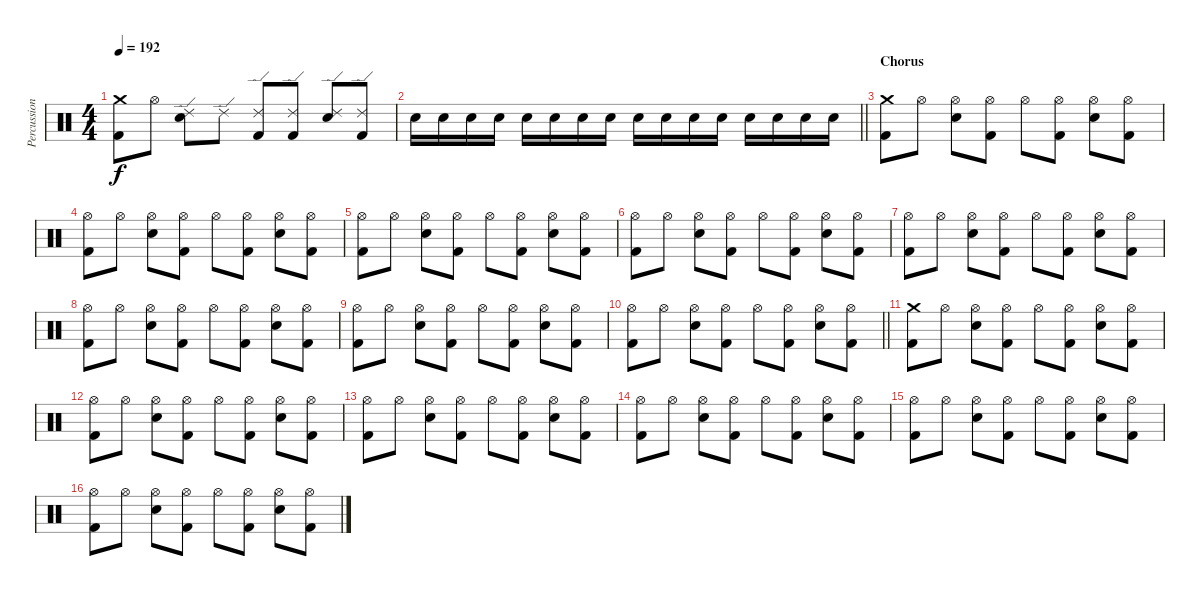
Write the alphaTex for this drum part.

\track ("Percussion" "Percussion") {instrument percussion}
\staff {score}
\articulation defaults
\ts (4 4)
\tempo 192
\clef neutral
\ks c
("Crash medium (hit)" "Kick (hit) 2").8{dy f} "Hi-Hat (open)".8 ("Ride (edge) 2" "Electric Snare (hit)").8 "Ride (edge) 2".8 ("Ride (edge) 2" "Kick (hit) 2").8 ("Ride (edge) 2" "Kick (hit) 2").8 ("Ride (edge) 2" "Electric Snare (hit)").8 ("Ride (edge) 2" "Kick (hit) 2").8 |
\barLineRight lightlight "Electric Snare (hit)".16 "Electric Snare (hit)".16 "Electric Snare (hit)".16 "Electric Snare (hit)".16 "Electric Snare (hit)".16 "Electric Snare (hit)".16 "Electric Snare (hit)".16 "Electric Snare (hit)".16 "Electric Snare (hit)".16 "Electric Snare (hit)".16 "Electric Snare (hit)".16 "Electric Snare (hit)".16 "Electric Snare (hit)".16 "Electric Snare (hit)".16 "Electric Snare (hit)".16 "Electric Snare (hit)".16
|
\section ("" "Chorus")
("Crash medium (hit)" "Kick (hit) 2").8 "Hi-Hat (open)".8 ("Hi-Hat (open)" "Electric Snare (hit)").8 ("Hi-Hat (open)" "Kick (hit) 2").8 "Hi-Hat (open)".8 ("Hi-Hat (open)" "Kick (hit) 2").8 ("Hi-Hat (open)" "Electric Snare (hit)").8 ("Hi-Hat (open)" "Kick (hit) 2").8 |
("Hi-Hat (open)" "Kick (hit) 2").8 "Hi-Hat (open)".8 ("Hi-Hat (open)" "Electric Snare (hit)").8 ("Hi-Hat (open)" "Kick (hit) 2").8 "Hi-Hat (open)".8 ("Hi-Hat (open)" "Kick (hit) 2").8 ("Hi-Hat (open)" "Electric Snare (hit)").8 ("Hi-Hat (open)" "Kick (hit) 2").8 |
("Hi-Hat (open)" "Kick (hit) 2").8 "Hi-Hat (open)".8 ("Hi-Hat (open)" "Electric Snare (hit)").8 ("Hi-Hat (open)" "Kick (hit) 2").8 "Hi-Hat (open)".8 ("Hi-Hat (open)" "Kick (hit) 2").8 ("Hi-Hat (open)" "Electric Snare (hit)").8 ("Hi-Hat (open)" "Kick (hit) 2").8 |
("Hi-Hat (open)" "Kick (hit) 2").8 "Hi-Hat (open)".8 ("Hi-Hat (open)" "Electric Snare (hit)").8 ("Hi-Hat (open)" "Kick (hit) 2").8 "Hi-Hat (open)".8 ("Hi-Hat (open)" "Kick (hit) 2").8 ("Hi-Hat (open)" "Electric Snare (hit)").8 ("Hi-Hat (open)" "Kick (hit) 2").8 |
("Hi-Hat (open)" "Kick (hit) 2").8 "Hi-Hat (open)".8 ("Hi-Hat (open)" "Electric Snare (hit)").8 ("Hi-Hat (open)" "Kick (hit) 2").8 "Hi-Hat (open)".8 ("Hi-Hat (open)" "Kick (hit) 2").8 ("Hi-Hat (open)" "Electric Snare (hit)").8 ("Hi-Hat (open)" "Kick (hit) 2").8 |
("Hi-Hat (open)" "Kick (hit) 2").8 "Hi-Hat (open)".8 ("Hi-Hat (open)" "Electric Snare (hit)").8 ("Hi-Hat (open)" "Kick (hit) 2").8 "Hi-Hat (open)".8 ("Hi-Hat (open)" "Kick (hit) 2").8 ("Hi-Hat (open)" "Electric Snare (hit)").8 ("Hi-Hat (open)" "Kick (hit) 2").8 |
("Hi-Hat (open)" "Kick (hit) 2").8 "Hi-Hat (open)".8 ("Hi-Hat (open)" "Electric Snare (hit)").8 ("Hi-Hat (open)" "Kick (hit) 2").8 "Hi-Hat (open)".8 ("Hi-Hat (open)" "Kick (hit) 2").8 ("Hi-Hat (open)" "Electric Snare (hit)").8 ("Hi-Hat (open)" "Kick (hit) 2").8 |
\barLineRight lightlight
("Hi-Hat (open)" "Kick (hit) 2").8 "Hi-Hat (open)".8 ("Hi-Hat (open)" "Electric Snare (hit)").8 ("Hi-Hat (open)" "Kick (hit) 2").8 "Hi-Hat (open)".8 ("Hi-Hat (open)" "Kick (hit) 2").8 ("Hi-Hat (open)" "Electric Snare (hit)").8 ("Hi-Hat (open)" "Kick (hit) 2").8 |
("Crash medium (hit)" "Kick (hit) 2").8 "Hi-Hat (open)".8 ("Hi-Hat (open)" "Electric Snare (hit)").8 ("Hi-Hat (open)" "Kick (hit) 2").8 "Hi-Hat (open)".8 ("Hi-Hat (open)" "Kick (hit) 2").8 ("Hi-Hat (open)" "Electric Snare (hit)").8 ("Hi-Hat (open)" "Kick (hit) 2").8 |
("Hi-Hat (open)" "Kick (hit) 2").8 "Hi-Hat (open)".8 ("Hi-Hat (open)" "Electric Snare (hit)").8 ("Hi-Hat (open)" "Kick (hit) 2").8 "Hi-Hat (open)".8 ("Hi-Hat (open)" "Kick (hit) 2").8 ("Hi-Hat (open)" "Electric Snare (hit)").8 ("Hi-Hat (open)" "Kick (hit) 2").8 |
("Hi-Hat (open)" "Kick (hit) 2").8 "Hi-Hat (open)".8 ("Hi-Hat (open)" "Electric Snare (hit)").8 ("Hi-Hat (open)" "Kick (hit) 2").8 "Hi-Hat (open)".8 ("Hi-Hat (open)" "Kick (hit) 2").8 ("Hi-Hat (open)" "Electric Snare (hit)").8 ("Hi-Hat (open)" "Kick (hit) 2").8 |
("Hi-Hat (open)" "Kick (hit) 2").8 "Hi-Hat (open)".8 ("Hi-Hat (open)" "Electric Snare (hit)").8 ("Hi-Hat (open)" "Kick (hit) 2").8 "Hi-Hat (open)".8 ("Hi-Hat (open)" "Kick (hit) 2").8 ("Hi-Hat (open)" "Electric Snare (hit)").8 ("Hi-Hat (open)" "Kick (hit) 2").8 |
("Hi-Hat (open)" "Kick (hit) 2").8 "Hi-Hat (open)".8 ("Hi-Hat (open)" "Electric Snare (hit)").8 ("Hi-Hat (open)" "Kick (hit) 2").8 "Hi-Hat (open)".8 ("Hi-Hat (open)" "Kick (hit) 2").8 ("Hi-Hat (open)" "Electric Snare (hit)").8 ("Hi-Hat (open)" "Kick (hit) 2").8 |
("Hi-Hat (open)" "Kick (hit) 2").8 "Hi-Hat (open)".8 ("Hi-Hat (open)" "Electric Snare (hit)").8 ("Hi-Hat (open)" "Kick (hit) 2").8 "Hi-Hat (open)".8 ("Hi-Hat (open)" "Kick (hit) 2").8 ("Hi-Hat (open)" "Electric Snare (hit)").8 ("Hi-Hat (open)" "Kick (hit) 2").8
